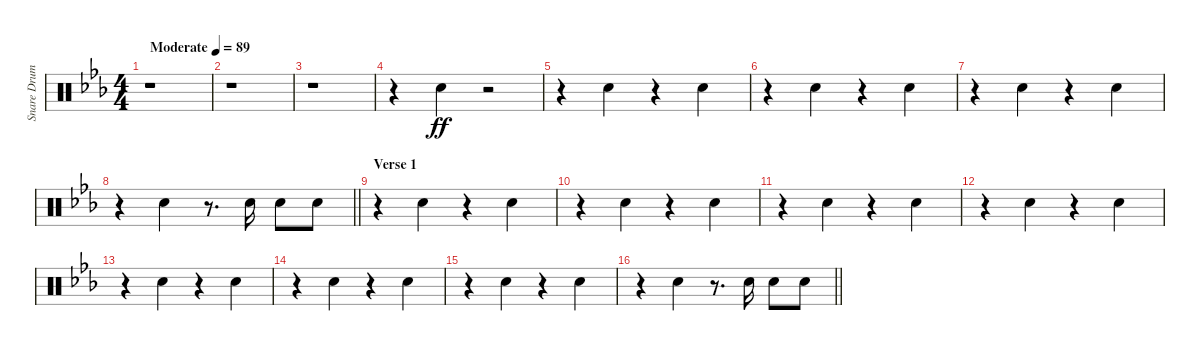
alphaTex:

\track ("Snare Drum" "Snare Drum") {instrument percussion}
\staff {score}
\articulation defaults
\ts (4 4)
\tempo (89 "Moderate")
\clef neutral
\ks eb
r.1{dy ff} |
r.1 |
r.1 |
r.4 "Electric Snare (hit)".4 r.2 |
r.4{beam merge} "Electric Snare (hit)".4 r.4{beam merge} "Electric Snare (hit)".4 |
r.4{beam merge} "Electric Snare (hit)".4 r.4{beam merge} "Electric Snare (hit)".4 |
r.4{beam merge} "Electric Snare (hit)".4 r.4{beam merge} "Electric Snare (hit)".4 |
\barLineRight lightlight
r.4{beam merge} "Electric Snare (hit)".4 r.8{d} "Electric Snare (hit)".16 "Electric Snare (hit)".8 "Electric Snare (hit)".8 |
\section ("" "Verse 1")
r.4{beam merge} "Electric Snare (hit)".4 r.4{beam merge} "Electric Snare (hit)".4 |
r.4{beam merge} "Electric Snare (hit)".4 r.4{beam merge} "Electric Snare (hit)".4 |
r.4{beam merge} "Electric Snare (hit)".4 r.4{beam merge} "Electric Snare (hit)".4 |
r.4{beam merge} "Electric Snare (hit)".4 r.4{beam merge} "Electric Snare (hit)".4 |
r.4{beam merge} "Electric Snare (hit)".4 r.4{beam merge} "Electric Snare (hit)".4 |
r.4{beam merge} "Electric Snare (hit)".4 r.4{beam merge} "Electric Snare (hit)".4 |
r.4{beam merge} "Electric Snare (hit)".4 r.4{beam merge} "Electric Snare (hit)".4 |
\barLineRight lightlight
r.4{beam merge} "Electric Snare (hit)".4 r.8{d} "Electric Snare (hit)".16 "Electric Snare (hit)".8 "Electric Snare (hit)".8
